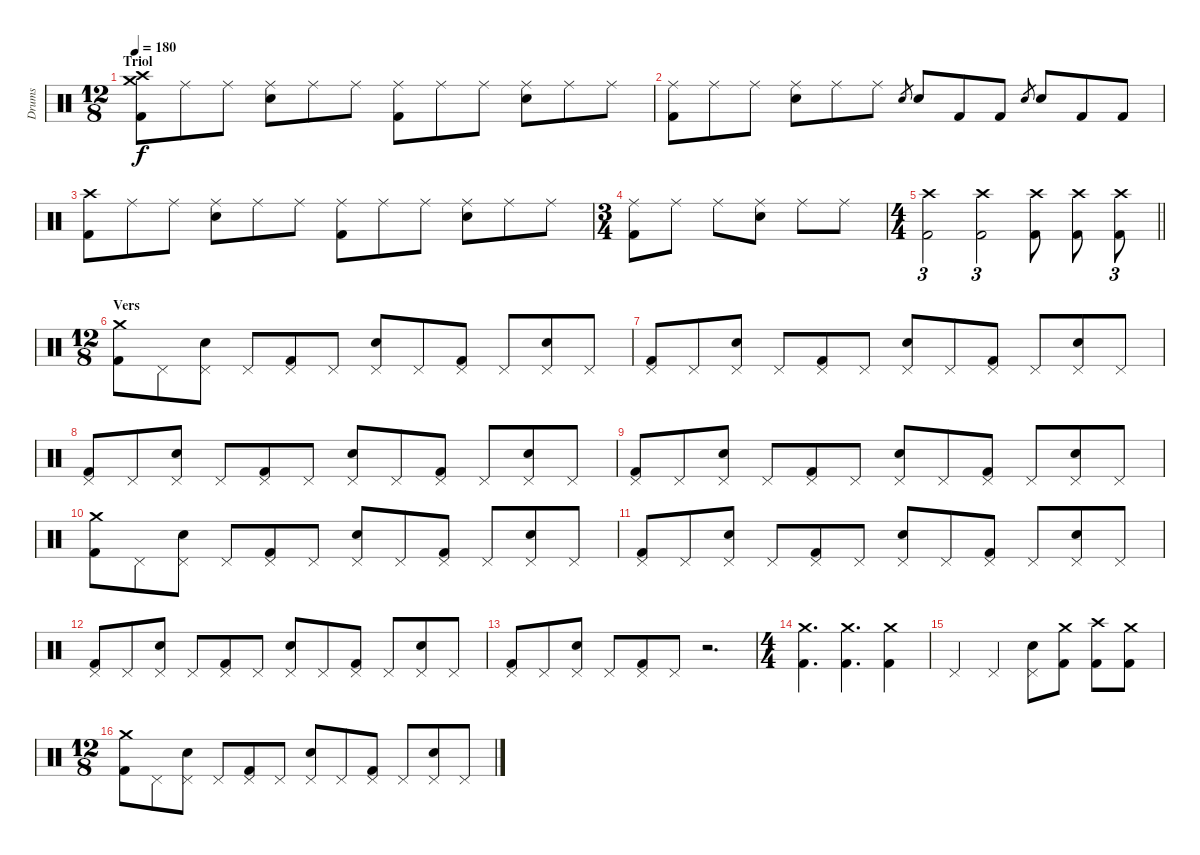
\track ("Drums" "Drums") {instrument percussion}
\staff {score}
\articulation defaults
\ts (12 8)
\section ("" "Triol")
\tempo 180
\clef neutral
\ks c
("Crash medium (hit)" "Crash high (hit)" "Kick (hit) 2").8{dy f} "Ride (middle)".8 "Ride (middle)".8 ("Ride (middle)" "Snare (hit) 2").8 "Ride (middle)".8 "Ride (middle)".8 ("Ride (middle)" "Kick (hit) 2").8 "Ride (middle)".8 "Ride (middle)".8 ("Ride (middle)" "Snare (hit) 2").8 "Ride (middle)".8 "Ride (middle)".8 |
("Ride (middle)" "Kick (hit) 2").8 "Ride (middle)".8 "Ride (middle)".8 ("Ride (middle)" "Snare (hit) 2").8 "Ride (middle)".8 "Ride (middle)".8 "Snare (hit) 2".8{gr} "Snare (hit) 2".8 "Kick (hit) 2".8 "Kick (hit) 2".8 "Snare (hit) 2".8{gr} "Snare (hit) 2".8 "Kick (hit) 2".8 "Kick (hit) 2".8 |
("Crash high (hit)" "Kick (hit) 2").8 "Ride (middle)".8 "Ride (middle)".8 ("Ride (middle)" "Snare (hit) 2").8 "Ride (middle)".8 "Ride (middle)".8 ("Ride (middle)" "Kick (hit) 2").8 "Ride (middle)".8 "Ride (middle)".8 ("Ride (middle)" "Snare (hit) 2").8 "Ride (middle)".8 "Ride (middle)".8 |
\ts (3 4)
("Ride (middle)" "Kick (hit) 2").8 "Ride (middle)".8 "Ride (middle)".8 ("Ride (middle)" "Snare (hit) 2").8 "Ride (middle)".8 "Ride (middle)".8 |
\ts (4 4)
\barLineRight lightlight
("Crash high (hit)" "Kick (hit) 2").2{tu (3 2)} ("Crash high (hit)" "Kick (hit) 2").2{tu (3 2)} ("Crash high (hit)" "Kick (hit) 2").8 ("Crash high (hit)" "Kick (hit) 2").8 ("Crash high (hit)" "Kick (hit) 2").8{tu (3 2)} |
\ts (12 8)
\section ("" "Vers ")
("Crash medium (hit)" "Kick (hit) 2").8 "Pedal Hi-Hat (hit)".8 ("Pedal Hi-Hat (hit)" "Snare (hit) 2").8 "Pedal Hi-Hat (hit)".8 ("Pedal Hi-Hat (hit)" "Kick (hit) 2").8 "Pedal Hi-Hat (hit)".8 ("Pedal Hi-Hat (hit)" "Snare (hit) 2").8 "Pedal Hi-Hat (hit)".8 ("Pedal Hi-Hat (hit)" "Kick (hit) 2").8 "Pedal Hi-Hat (hit)".8 ("Pedal Hi-Hat (hit)" "Snare (hit) 2").8 "Pedal Hi-Hat (hit)".8 |
("Pedal Hi-Hat (hit)" "Kick (hit) 2").8 "Pedal Hi-Hat (hit)".8 ("Pedal Hi-Hat (hit)" "Snare (hit) 2").8 "Pedal Hi-Hat (hit)".8 ("Pedal Hi-Hat (hit)" "Kick (hit) 2").8 "Pedal Hi-Hat (hit)".8 ("Pedal Hi-Hat (hit)" "Snare (hit) 2").8 "Pedal Hi-Hat (hit)".8 ("Pedal Hi-Hat (hit)" "Kick (hit) 2").8 "Pedal Hi-Hat (hit)".8 ("Pedal Hi-Hat (hit)" "Snare (hit) 2").8 "Pedal Hi-Hat (hit)".8 |
("Pedal Hi-Hat (hit)" "Kick (hit) 2").8 "Pedal Hi-Hat (hit)".8 ("Pedal Hi-Hat (hit)" "Snare (hit) 2").8 "Pedal Hi-Hat (hit)".8 ("Pedal Hi-Hat (hit)" "Kick (hit) 2").8 "Pedal Hi-Hat (hit)".8 ("Pedal Hi-Hat (hit)" "Snare (hit) 2").8 "Pedal Hi-Hat (hit)".8 ("Pedal Hi-Hat (hit)" "Kick (hit) 2").8 "Pedal Hi-Hat (hit)".8 ("Pedal Hi-Hat (hit)" "Snare (hit) 2").8 "Pedal Hi-Hat (hit)".8 |
("Pedal Hi-Hat (hit)" "Kick (hit) 2").8 "Pedal Hi-Hat (hit)".8 ("Pedal Hi-Hat (hit)" "Snare (hit) 2").8 "Pedal Hi-Hat (hit)".8 ("Pedal Hi-Hat (hit)" "Kick (hit) 2").8 "Pedal Hi-Hat (hit)".8 ("Pedal Hi-Hat (hit)" "Snare (hit) 2").8 "Pedal Hi-Hat (hit)".8 ("Pedal Hi-Hat (hit)" "Kick (hit) 2").8 "Pedal Hi-Hat (hit)".8 ("Pedal Hi-Hat (hit)" "Snare (hit) 2").8 "Pedal Hi-Hat (hit)".8 |
("Crash medium (hit)" "Kick (hit) 2").8 "Pedal Hi-Hat (hit)".8 ("Pedal Hi-Hat (hit)" "Snare (hit) 2").8 "Pedal Hi-Hat (hit)".8 ("Pedal Hi-Hat (hit)" "Kick (hit) 2").8 "Pedal Hi-Hat (hit)".8 ("Pedal Hi-Hat (hit)" "Snare (hit) 2").8 "Pedal Hi-Hat (hit)".8 ("Pedal Hi-Hat (hit)" "Kick (hit) 2").8 "Pedal Hi-Hat (hit)".8 ("Pedal Hi-Hat (hit)" "Snare (hit) 2").8 "Pedal Hi-Hat (hit)".8 |
("Pedal Hi-Hat (hit)" "Kick (hit) 2").8 "Pedal Hi-Hat (hit)".8 ("Pedal Hi-Hat (hit)" "Snare (hit) 2").8 "Pedal Hi-Hat (hit)".8 ("Pedal Hi-Hat (hit)" "Kick (hit) 2").8 "Pedal Hi-Hat (hit)".8 ("Pedal Hi-Hat (hit)" "Snare (hit) 2").8 "Pedal Hi-Hat (hit)".8 ("Pedal Hi-Hat (hit)" "Kick (hit) 2").8 "Pedal Hi-Hat (hit)".8 ("Pedal Hi-Hat (hit)" "Snare (hit) 2").8 "Pedal Hi-Hat (hit)".8 |
("Pedal Hi-Hat (hit)" "Kick (hit) 2").8 "Pedal Hi-Hat (hit)".8 ("Pedal Hi-Hat (hit)" "Snare (hit) 2").8 "Pedal Hi-Hat (hit)".8 ("Pedal Hi-Hat (hit)" "Kick (hit) 2").8 "Pedal Hi-Hat (hit)".8 ("Pedal Hi-Hat (hit)" "Snare (hit) 2").8 "Pedal Hi-Hat (hit)".8 ("Pedal Hi-Hat (hit)" "Kick (hit) 2").8 "Pedal Hi-Hat (hit)".8 ("Pedal Hi-Hat (hit)" "Snare (hit) 2").8 "Pedal Hi-Hat (hit)".8 |
("Pedal Hi-Hat (hit)" "Kick (hit) 2").8 "Pedal Hi-Hat (hit)".8 ("Pedal Hi-Hat (hit)" "Snare (hit) 2").8 "Pedal Hi-Hat (hit)".8 ("Pedal Hi-Hat (hit)" "Kick (hit) 2").8 "Pedal Hi-Hat (hit)".8 r.2{d} |
\ts (4 4)
("Crash medium (hit)" "Kick (hit) 2").4{d} ("Crash medium (hit)" "Kick (hit) 2").4{d} ("Crash medium (hit)" "Kick (hit) 2").4 |
"Pedal Hi-Hat (hit)".4 "Pedal Hi-Hat (hit)".4 ("Snare (hit) 2" "Pedal Hi-Hat (hit)").8 ("Crash medium (hit)" "Kick (hit) 2").8 ("Crash high (hit)" "Kick (hit) 2").8 ("Crash medium (hit)" "Kick (hit) 2").8 |
\ts (12 8)
("Crash medium (hit)" "Kick (hit) 2").8 "Pedal Hi-Hat (hit)".8 ("Pedal Hi-Hat (hit)" "Snare (hit) 2").8 "Pedal Hi-Hat (hit)".8 ("Pedal Hi-Hat (hit)" "Kick (hit) 2").8 "Pedal Hi-Hat (hit)".8 ("Pedal Hi-Hat (hit)" "Snare (hit) 2").8 "Pedal Hi-Hat (hit)".8 ("Pedal Hi-Hat (hit)" "Kick (hit) 2").8 "Pedal Hi-Hat (hit)".8 ("Pedal Hi-Hat (hit)" "Snare (hit) 2").8 "Pedal Hi-Hat (hit)".8
